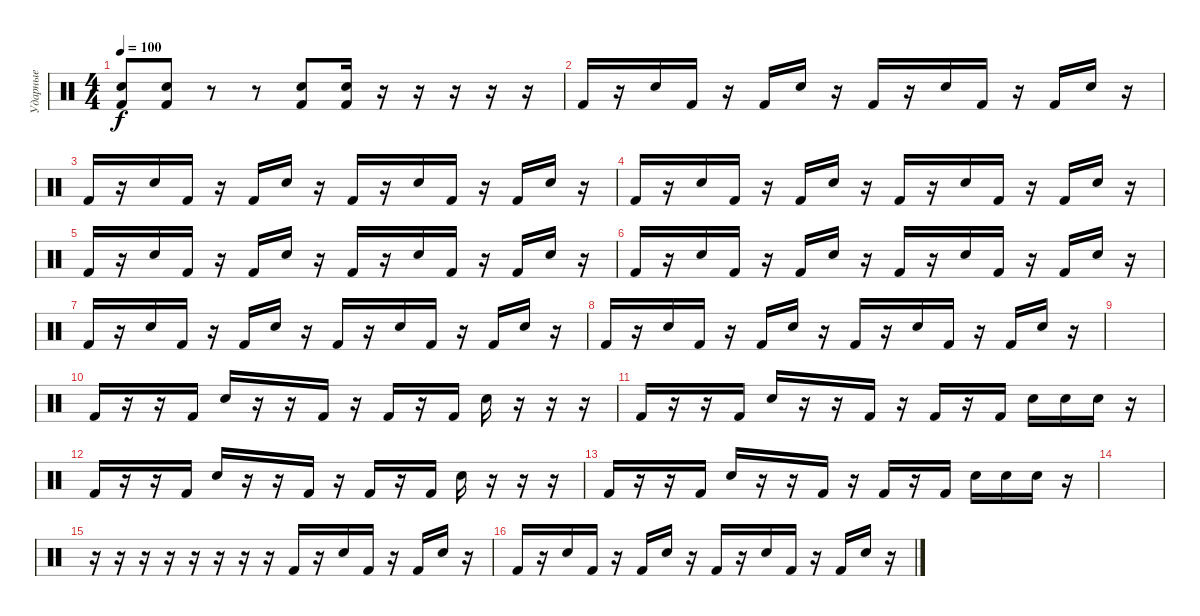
\track ("Ударные" "Ударные") {instrument percussion}
\staff {score}
\articulation defaults
\ts (4 4)
\tempo 100
\clef neutral
\ks c
("Kick (hit) 2" "Electric Snare (hit)").8{dy f} ("Kick (hit) 2" "Electric Snare (hit)").8 r.8 r.8 ("Kick (hit) 2" "Electric Snare (hit)").8 ("Kick (hit) 2" "Electric Snare (hit)").16 r.16 r.16 r.16 r.16 r.16 |
"Kick (hit) 2".16 r.16 "Electric Snare (hit)".16 "Kick (hit) 2".16 r.16 "Kick (hit) 2".16 "Electric Snare (hit)".16 r.16 "Kick (hit) 2".16 r.16 "Electric Snare (hit)".16 "Kick (hit) 2".16 r.16 "Kick (hit) 2".16 "Electric Snare (hit)".16 r.16 |
"Kick (hit) 2".16 r.16 "Electric Snare (hit)".16 "Kick (hit) 2".16 r.16 "Kick (hit) 2".16 "Electric Snare (hit)".16 r.16 "Kick (hit) 2".16 r.16 "Electric Snare (hit)".16 "Kick (hit) 2".16 r.16 "Kick (hit) 2".16 "Electric Snare (hit)".16 r.16 |
"Kick (hit) 2".16 r.16 "Electric Snare (hit)".16 "Kick (hit) 2".16 r.16 "Kick (hit) 2".16 "Electric Snare (hit)".16 r.16 "Kick (hit) 2".16 r.16 "Electric Snare (hit)".16 "Kick (hit) 2".16 r.16 "Kick (hit) 2".16 "Electric Snare (hit)".16 r.16 |
"Kick (hit) 2".16 r.16 "Electric Snare (hit)".16 "Kick (hit) 2".16 r.16 "Kick (hit) 2".16 "Electric Snare (hit)".16 r.16 "Kick (hit) 2".16 r.16 "Electric Snare (hit)".16 "Kick (hit) 2".16 r.16 "Kick (hit) 2".16 "Electric Snare (hit)".16 r.16 |
"Kick (hit) 2".16 r.16 "Electric Snare (hit)".16 "Kick (hit) 2".16 r.16 "Kick (hit) 2".16 "Electric Snare (hit)".16 r.16 "Kick (hit) 2".16 r.16 "Electric Snare (hit)".16 "Kick (hit) 2".16 r.16 "Kick (hit) 2".16 "Electric Snare (hit)".16 r.16 |
"Kick (hit) 2".16 r.16 "Electric Snare (hit)".16 "Kick (hit) 2".16 r.16 "Kick (hit) 2".16 "Electric Snare (hit)".16 r.16 "Kick (hit) 2".16 r.16 "Electric Snare (hit)".16 "Kick (hit) 2".16 r.16 "Kick (hit) 2".16 "Electric Snare (hit)".16 r.16 |
"Kick (hit) 2".16 r.16 "Electric Snare (hit)".16 "Kick (hit) 2".16 r.16 "Kick (hit) 2".16 "Electric Snare (hit)".16 r.16 "Kick (hit) 2".16 r.16 "Electric Snare (hit)".16 "Kick (hit) 2".16 r.16 "Kick (hit) 2".16 "Electric Snare (hit)".16 r.16 |
|
"Kick (hit) 2".16 r.16 r.16 "Kick (hit) 2".16 "Electric Snare (hit)".16 r.16 r.16 "Kick (hit) 2".16 r.16 "Kick (hit) 2".16 r.16 "Kick (hit) 2".16 "Electric Snare (hit)".16 r.16 r.16 r.16 |
"Kick (hit) 2".16 r.16 r.16 "Kick (hit) 2".16 "Electric Snare (hit)".16 r.16 r.16 "Kick (hit) 2".16 r.16 "Kick (hit) 2".16 r.16 "Kick (hit) 2".16 "Electric Snare (hit)".16 "Electric Snare (hit)".16 "Electric Snare (hit)".16 r.16 |
"Kick (hit) 2".16 r.16 r.16 "Kick (hit) 2".16 "Electric Snare (hit)".16 r.16 r.16 "Kick (hit) 2".16 r.16 "Kick (hit) 2".16 r.16 "Kick (hit) 2".16 "Electric Snare (hit)".16 r.16 r.16 r.16 |
"Kick (hit) 2".16 r.16 r.16 "Kick (hit) 2".16 "Electric Snare (hit)".16 r.16 r.16 "Kick (hit) 2".16 r.16 "Kick (hit) 2".16 r.16 "Kick (hit) 2".16 "Electric Snare (hit)".16 "Electric Snare (hit)".16 "Electric Snare (hit)".16 r.16 |
|
r.16 r.16 r.16 r.16 r.16 r.16 r.16 r.16 "Kick (hit) 2".16 r.16 "Electric Snare (hit)".16 "Kick (hit) 2".16 r.16 "Kick (hit) 2".16 "Electric Snare (hit)".16 r.16 |
"Kick (hit) 2".16 r.16 "Electric Snare (hit)".16 "Kick (hit) 2".16 r.16 "Kick (hit) 2".16 "Electric Snare (hit)".16 r.16 "Kick (hit) 2".16 r.16 "Electric Snare (hit)".16 "Kick (hit) 2".16 r.16 "Kick (hit) 2".16 "Electric Snare (hit)".16 r.16
